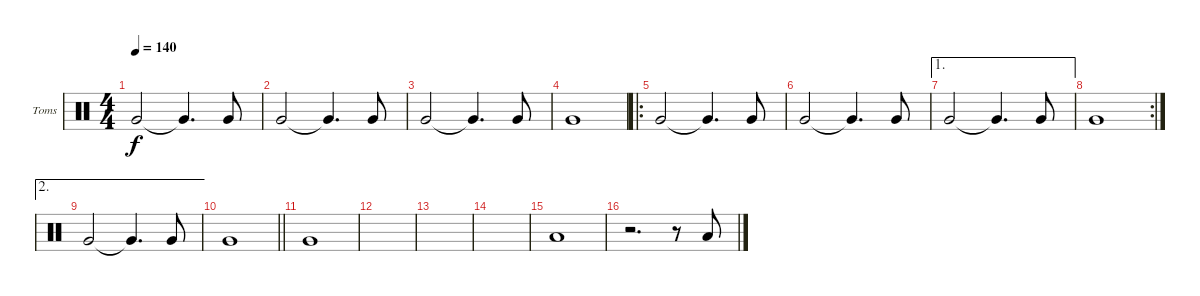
\bracketExtendMode groupsimilarinstruments
\firstSystemTrackNameOrientation horizontal
\otherSystemsTrackNameOrientation horizontal
\track ("Toms" "Toms") {instrument percussion}
\staff {score}
\articulation defaults
\ts (4 4)
\tempo 140
\clef neutral
\scale
0.333333
\ks c "Very Low Tom (hit)".2{dy f} "Very Low Tom (hit)"{t}.4{d} "Very Low Tom (hit)".8
|
\scale
0.333333 "Very Low Tom (hit)".2 "Very Low Tom (hit)"{t}.4{d} "Very Low Tom (hit)".8 |
\scale
0.311111 "Very Low Tom (hit)".2 "Very Low Tom (hit)"{t}.4{d} "Very Low Tom (hit)".8 |
\scale
0.311111 "Very Low Tom (hit)".1 |
\ro
\scale
0.377778 "Very Low Tom (hit)".2 "Very Low Tom (hit)"{t}.4{d} "Very Low Tom (hit)".8 |
\scale
0.321839 "Very Low Tom (hit)".2 "Very Low Tom (hit)"{t}.4{d} "Very Low Tom (hit)".8 |
\ae 1
\scale
0.321839 "Very Low Tom (hit)".2 "Very Low Tom (hit)"{t}.4{d} "Very Low Tom (hit)".8 |
\rc 2
\scale
0.356322 "Very Low Tom (hit)".1 |
\ae 2
\scale
0.333333 "Very Low Tom (hit)".2 "Very Low Tom (hit)"{t}.4{d} "Very Low Tom (hit)".8 |
\scale
0.333333
\barLineRight lightlight "Very Low Tom (hit)".1
|
\scale
0.333333 "Very Low Tom (hit)".1 |
\scale
0.333333 |
\scale
0.333333 |
\scale
0.333333 |
\scale
0.333333 "Low Tom (hit)".1 |
\scale
0.333333 r.2{d} r.8 "Low Tom (hit)".8
